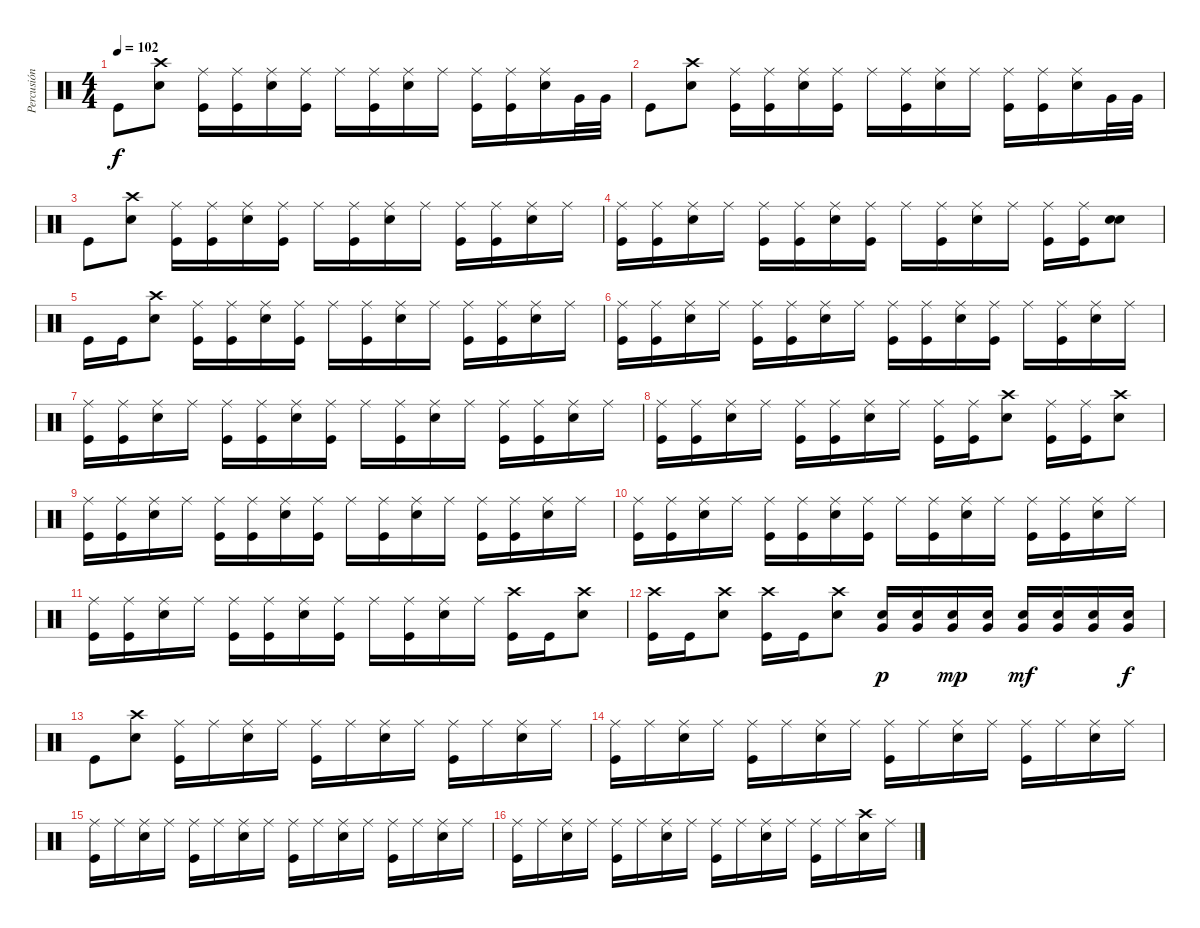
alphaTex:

\track ("Percusión" "Percusión") {instrument percussion}
\staff {score}
\articulation defaults
\ts (4 4)
\tempo 102
\clef neutral
\ks c "Kick (hit)".8{dy f}
("Snare (hit) 2" "Crash high (hit)").8 ("Kick (hit)" "Ride (middle)").16 ("Kick (hit)" "Ride (middle)").16 ("Snare (hit) 2" "Ride (middle)").16 ("Kick (hit)" "Ride (middle)").16 "Ride (middle)".16 ("Kick (hit)" "Ride (middle)").16 ("Snare (hit) 2" "Ride (middle)").16 "Ride (middle)".16 ("Kick (hit)" "Ride (middle)").16 ("Kick (hit)" "Ride (middle)").16 ("Snare (hit) 2" "Ride (middle)").16 "Very Low Tom (hit)".32 "Very Low Tom (hit)".32 |
"Kick (hit)".8 ("Snare (hit) 2" "Crash high (hit)").8 ("Kick (hit)" "Ride (middle)").16 ("Kick (hit)" "Ride (middle)").16 ("Snare (hit) 2" "Ride (middle)").16 ("Kick (hit)" "Ride (middle)").16 "Ride (middle)".16 ("Kick (hit)" "Ride (middle)").16 ("Snare (hit) 2" "Ride (middle)").16 "Ride (middle)".16 ("Kick (hit)" "Ride (middle)").16 ("Kick (hit)" "Ride (middle)").16 ("Snare (hit) 2" "Ride (middle)").16 "Very Low Tom (hit)".32 "Very Low Tom (hit)".32 |
"Kick (hit)".8 ("Snare (hit) 2" "Crash high (hit)").8 ("Kick (hit)" "Ride (middle)").16 ("Kick (hit)" "Ride (middle)").16 ("Snare (hit) 2" "Ride (middle)").16 ("Kick (hit)" "Ride (middle)").16 "Ride (middle)".16 ("Kick (hit)" "Ride (middle)").16 ("Snare (hit) 2" "Ride (middle)").16 "Ride (middle)".16 ("Kick (hit)" "Ride (middle)").16 ("Kick (hit)" "Ride (middle)").16 ("Snare (hit) 2" "Ride (middle)").16 "Ride (middle)".16 |
("Kick (hit)" "Ride (middle)").16 ("Kick (hit)" "Ride (middle)").16 ("Snare (hit) 2" "Ride (middle)").16 "Ride (middle)".16 ("Kick (hit)" "Ride (middle)").16 ("Kick (hit)" "Ride (middle)").16 ("Snare (hit) 2" "Ride (middle)").16 ("Kick (hit)" "Ride (middle)").16 "Ride (middle)".16 ("Kick (hit)" "Ride (middle)").16 ("Snare (hit) 2" "Ride (middle)").16 "Ride (middle)".16 ("Kick (hit)" "Ride (middle)").16 ("Kick (hit)" "Ride (middle)").16 ("Snare (hit) 2" "Snare (hit) 2").8 |
"Kick (hit)".16 "Kick (hit)".16 ("Snare (hit) 2" "Crash high (hit)").8 ("Kick (hit)" "Ride (middle)").16 ("Kick (hit)" "Ride (middle)").16 ("Snare (hit) 2" "Ride (middle)").16 ("Kick (hit)" "Ride (middle)").16 "Ride (middle)".16 ("Kick (hit)" "Ride (middle)").16 ("Snare (hit) 2" "Ride (middle)").16 "Ride (middle)".16 ("Kick (hit)" "Ride (middle)").16 ("Kick (hit)" "Ride (middle)").16 ("Snare (hit) 2" "Ride (middle)").16 "Ride (middle)".16 |
("Kick (hit)" "Ride (middle)").16 ("Kick (hit)" "Ride (middle)").16 ("Snare (hit) 2" "Ride (middle)").16 "Ride (middle)".16 ("Kick (hit)" "Ride (middle)").16 ("Kick (hit)" "Ride (middle)").16 ("Snare (hit) 2" "Ride (middle)").16 "Ride (middle)".16 ("Kick (hit)" "Ride (middle)").16 ("Kick (hit)" "Ride (middle)").16 ("Snare (hit) 2" "Ride (middle)").16 ("Kick (hit)" "Ride (middle)").16 "Ride (middle)".16 ("Kick (hit)" "Ride (middle)").16 ("Snare (hit) 2" "Ride (middle)").16 "Ride (middle)".16 |
("Kick (hit)" "Ride (middle)").16 ("Kick (hit)" "Ride (middle)").16 ("Snare (hit) 2" "Ride (middle)").16 "Ride (middle)".16 ("Kick (hit)" "Ride (middle)").16 ("Kick (hit)" "Ride (middle)").16 ("Snare (hit) 2" "Ride (middle)").16 ("Kick (hit)" "Ride (middle)").16 "Ride (middle)".16 ("Kick (hit)" "Ride (middle)").16 ("Snare (hit) 2" "Ride (middle)").16 "Ride (middle)".16 ("Kick (hit)" "Ride (middle)").16 ("Kick (hit)" "Ride (middle)").16 ("Snare (hit) 2" "Ride (middle)").16 "Ride (middle)".16 |
("Kick (hit)" "Ride (middle)").16 ("Kick (hit)" "Ride (middle)").16 ("Snare (hit) 2" "Ride (middle)").16 "Ride (middle)".16 ("Kick (hit)" "Ride (middle)").16 ("Kick (hit)" "Ride (middle)").16 ("Snare (hit) 2" "Ride (middle)").16 "Ride (middle)".16 ("Kick (hit)" "Ride (middle)").16 ("Kick (hit)" "Ride (middle)").16 ("Snare (hit) 2" "Crash high (hit)").8 ("Kick (hit)" "Ride (middle)").16 ("Kick (hit)" "Ride (middle)").16 ("Snare (hit) 2" "Crash high (hit)").8 |
("Kick (hit)" "Ride (middle)").16 ("Kick (hit)" "Ride (middle)").16 ("Snare (hit) 2" "Ride (middle)").16 "Ride (middle)".16 ("Kick (hit)" "Ride (middle)").16 ("Kick (hit)" "Ride (middle)").16 ("Snare (hit) 2" "Ride (middle)").16 ("Kick (hit)" "Ride (middle)").16 "Ride (middle)".16 ("Kick (hit)" "Ride (middle)").16 ("Snare (hit) 2" "Ride (middle)").16 "Ride (middle)".16 ("Kick (hit)" "Ride (middle)").16 ("Kick (hit)" "Ride (middle)").16 ("Snare (hit) 2" "Ride (middle)").16 "Ride (middle)".16 |
("Kick (hit)" "Ride (middle)").16 ("Kick (hit)" "Ride (middle)").16 ("Snare (hit) 2" "Ride (middle)").16 "Ride (middle)".16 ("Kick (hit)" "Ride (middle)").16 ("Kick (hit)" "Ride (middle)").16 ("Snare (hit) 2" "Ride (middle)").16 ("Kick (hit)" "Ride (middle)").16 "Ride (middle)".16 ("Kick (hit)" "Ride (middle)").16 ("Snare (hit) 2" "Ride (middle)").16 "Ride (middle)".16 ("Kick (hit)" "Ride (middle)").16 ("Kick (hit)" "Ride (middle)").16 ("Snare (hit) 2" "Ride (middle)").16 "Ride (middle)".16 |
("Kick (hit)" "Ride (middle)").16 ("Kick (hit)" "Ride (middle)").16 ("Snare (hit) 2" "Ride (middle)").16 "Ride (middle)".16 ("Kick (hit)" "Ride (middle)").16 ("Kick (hit)" "Ride (middle)").16 ("Snare (hit) 2" "Ride (middle)").16 ("Kick (hit)" "Ride (middle)").16 "Ride (middle)".16 ("Kick (hit)" "Ride (middle)").16 ("Snare (hit) 2" "Ride (middle)").16 "Ride (middle)".16 ("Kick (hit)" "Crash high (hit)").16 "Kick (hit)".16 ("Snare (hit) 2" "Crash high (hit)").8 |
("Kick (hit)" "Crash high (hit)").16 "Kick (hit)".16 ("Snare (hit) 2" "Crash high (hit)").8 ("Kick (hit)" "Crash high (hit)").16 "Kick (hit)".16 ("Snare (hit) 2" "Crash high (hit)").8 ("Snare (hit) 2" "Very Low Tom (hit)").16{dy p} ("Snare (hit) 2" "Very Low Tom (hit)").16 ("Snare (hit) 2" "Very Low Tom (hit)").16{dy mp} ("Snare (hit) 2" "Very Low Tom (hit)").16 ("Snare (hit) 2" "Very Low Tom (hit)").16{dy mf} ("Snare (hit) 2" "Very Low Tom (hit)").16 ("Snare (hit) 2" "Very Low Tom (hit)").16 ("Snare (hit) 2" "Very Low Tom (hit)").16{dy f} |
"Kick (hit)".8 ("Snare (hit) 2" "Crash high (hit)").8 ("Kick (hit)" "Ride (middle)").16 "Ride (middle)".16 ("Snare (hit) 2" "Ride (middle)").16 "Ride (middle)".16 ("Kick (hit)" "Ride (middle)").16 "Ride (middle)".16 ("Snare (hit) 2" "Ride (middle)").16 "Ride (middle)".16 ("Kick (hit)" "Ride (middle)").16 "Ride (middle)".16 ("Snare (hit) 2" "Ride (middle)").16 "Ride (middle)".16 |
("Kick (hit)" "Ride (middle)").16 "Ride (middle)".16 ("Snare (hit) 2" "Ride (middle)").16 "Ride (middle)".16 ("Kick (hit)" "Ride (middle)").16 "Ride (middle)".16 ("Snare (hit) 2" "Ride (middle)").16 "Ride (middle)".16 ("Kick (hit)" "Ride (middle)").16 "Ride (middle)".16 ("Snare (hit) 2" "Ride (middle)").16 "Ride (middle)".16 ("Kick (hit)" "Ride (middle)").16 "Ride (middle)".16 ("Snare (hit) 2" "Ride (middle)").16 "Ride (middle)".16 |
("Kick (hit)" "Ride (middle)").16 "Ride (middle)".16 ("Snare (hit) 2" "Ride (middle)").16 "Ride (middle)".16 ("Kick (hit)" "Ride (middle)").16 "Ride (middle)".16 ("Snare (hit) 2" "Ride (middle)").16 "Ride (middle)".16 ("Kick (hit)" "Ride (middle)").16 "Ride (middle)".16 ("Snare (hit) 2" "Ride (middle)").16 "Ride (middle)".16 ("Kick (hit)" "Ride (middle)").16 "Ride (middle)".16 ("Snare (hit) 2" "Ride (middle)").16 "Ride (middle)".16 |
("Kick (hit)" "Ride (middle)").16 "Ride (middle)".16 ("Snare (hit) 2" "Ride (middle)").16 "Ride (middle)".16 ("Kick (hit)" "Ride (middle)").16 "Ride (middle)".16 ("Snare (hit) 2" "Ride (middle)").16 "Ride (middle)".16 ("Kick (hit)" "Ride (middle)").16 "Ride (middle)".16 ("Snare (hit) 2" "Ride (middle)").16 "Ride (middle)".16 ("Kick (hit)" "Ride (middle)").16 "Ride (middle)".16 ("Snare (hit) 2" "Crash high (hit)").16 "Ride (middle)".16
